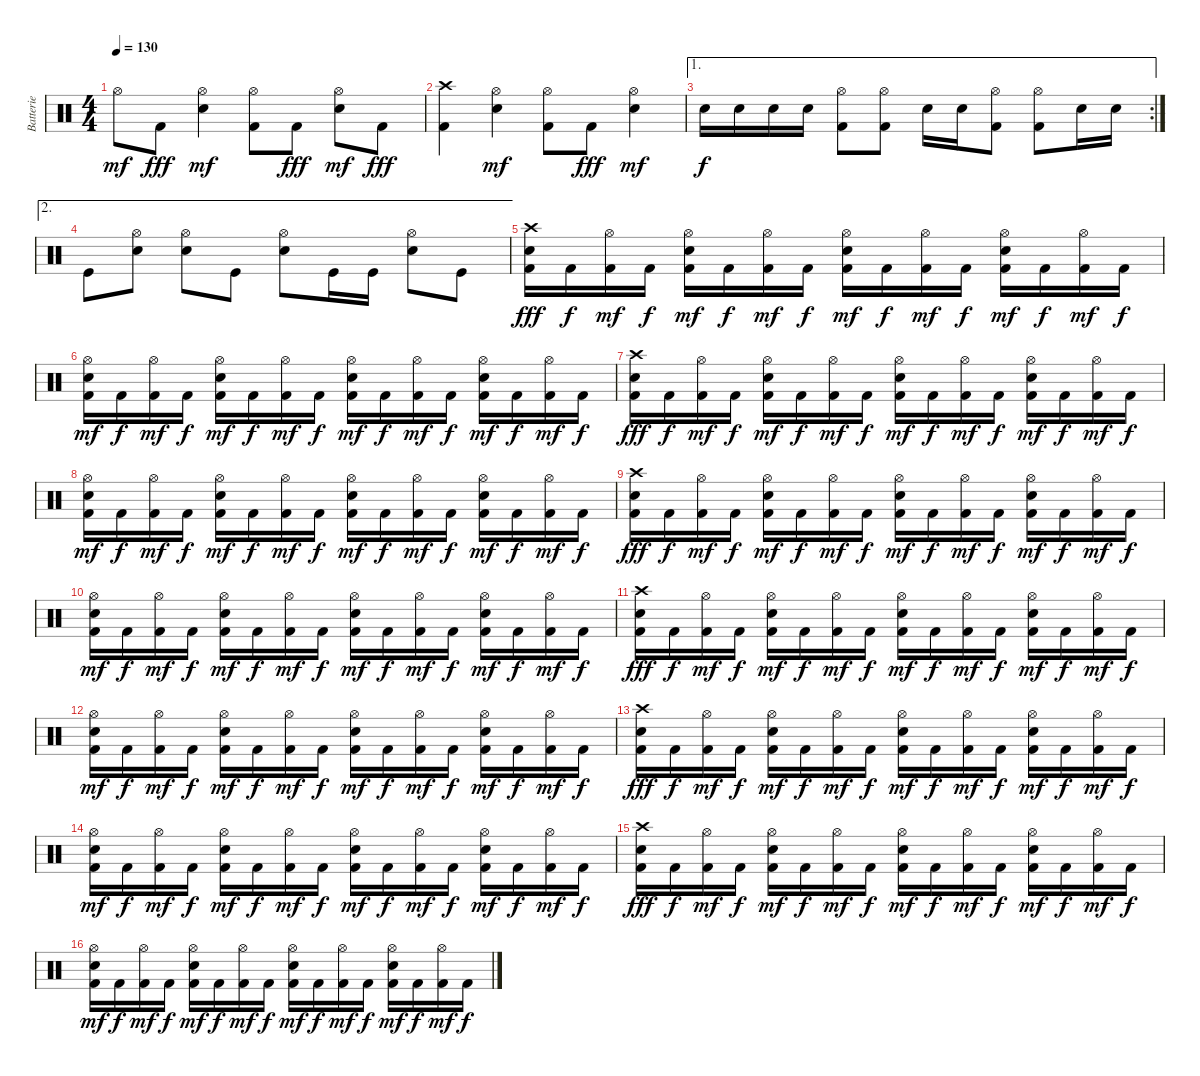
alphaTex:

\track ("Batterie" "Batterie") {instrument percussion}
\staff {score}
\articulation defaults
\ts (4 4)
\tempo 130
\clef neutral
\ks c "Hi-Hat (open)".8{dy mf} "Kick (hit) 2".8{dy fff}
("Snare (hit) 2" "Hi-Hat (open)").4{dy mf} ("Kick (hit) 2" "Hi-Hat (open)").8 "Kick (hit) 2".8{dy fff} ("Snare (hit) 2" "Hi-Hat (open)").8{dy mf} "Kick (hit) 2".8{dy fff} |
("Crash high (hit)" "Kick (hit) 2").4 ("Snare (hit) 2" "Hi-Hat (open)").4{dy mf} ("Kick (hit) 2" "Hi-Hat (open)").8 "Kick (hit) 2".8{dy fff} ("Snare (hit) 2" "Hi-Hat (open)").4{dy mf} |
\ae 1
\rc 2 "Snare (hit) 2".16{dy f} "Snare (hit) 2".16 "Snare (hit) 2".16 "Snare (hit) 2".16
("Kick (hit) 2" "Hi-Hat (open)").8 ("Kick (hit) 2" "Hi-Hat (open)").8 "Snare (hit) 2".16 "Snare (hit) 2".16 ("Kick (hit) 2" "Hi-Hat (open)").8 ("Kick (hit) 2" "Hi-Hat (open)").8 "Snare (hit) 2".16 "Snare (hit) 2".16 |
\ae 2 "Kick (hit)".8
("Snare (hit) 2" "Hi-Hat (open)").8 ("Snare (hit) 2" "Hi-Hat (open)").8 "Kick (hit)".8 ("Snare (hit) 2" "Hi-Hat (open)").8 "Kick (hit)".16 "Kick (hit)".16 ("Snare (hit) 2" "Hi-Hat (open)").8 "Kick (hit)".8 |
("Crash high (hit)" "Snare (hit) 2" "Kick (hit) 2").16{dy fff volume 12} "Kick (hit) 2".16{dy f} ("Kick (hit) 2" "Hi-Hat (open)").16{dy mf} "Kick (hit) 2".16{dy f} ("Snare (hit) 2" "Kick (hit) 2" "Hi-Hat (open)").16{dy mf} "Kick (hit) 2".16{dy f} ("Kick (hit) 2" "Hi-Hat (open)").16{dy mf} "Kick (hit) 2".16{dy f} ("Snare (hit) 2" "Kick (hit) 2" "Hi-Hat (open)").16{dy mf} "Kick (hit) 2".16{dy f} ("Kick (hit) 2" "Hi-Hat (open)").16{dy mf} "Kick (hit) 2".16{dy f} ("Snare (hit) 2" "Kick (hit) 2" "Hi-Hat (open)").16{dy mf} "Kick (hit) 2".16{dy f} ("Kick (hit) 2" "Hi-Hat (open)").16{dy mf} "Kick (hit) 2".16{dy f} |
("Snare (hit) 2" "Kick (hit) 2" "Hi-Hat (open)").16{dy mf volume 11} "Kick (hit) 2".16{dy f} ("Kick (hit) 2" "Hi-Hat (open)").16{dy mf} "Kick (hit) 2".16{dy f} ("Snare (hit) 2" "Kick (hit) 2" "Hi-Hat (open)").16{dy mf} "Kick (hit) 2".16{dy f} ("Kick (hit) 2" "Hi-Hat (open)").16{dy mf} "Kick (hit) 2".16{dy f} ("Snare (hit) 2" "Kick (hit) 2" "Hi-Hat (open)").16{dy mf} "Kick (hit) 2".16{dy f} ("Kick (hit) 2" "Hi-Hat (open)").16{dy mf} "Kick (hit) 2".16{dy f} ("Snare (hit) 2" "Kick (hit) 2" "Hi-Hat (open)").16{dy mf} "Kick (hit) 2".16{dy f} ("Kick (hit) 2" "Hi-Hat (open)").16{dy mf} "Kick (hit) 2".16{dy f} |
("Crash high (hit)" "Snare (hit) 2" "Kick (hit) 2").16{dy fff volume 10} "Kick (hit) 2".16{dy f} ("Kick (hit) 2" "Hi-Hat (open)").16{dy mf} "Kick (hit) 2".16{dy f} ("Snare (hit) 2" "Kick (hit) 2" "Hi-Hat (open)").16{dy mf} "Kick (hit) 2".16{dy f} ("Kick (hit) 2" "Hi-Hat (open)").16{dy mf} "Kick (hit) 2".16{dy f} ("Snare (hit) 2" "Kick (hit) 2" "Hi-Hat (open)").16{dy mf} "Kick (hit) 2".16{dy f} ("Kick (hit) 2" "Hi-Hat (open)").16{dy mf} "Kick (hit) 2".16{dy f} ("Snare (hit) 2" "Kick (hit) 2" "Hi-Hat (open)").16{dy mf} "Kick (hit) 2".16{dy f} ("Kick (hit) 2" "Hi-Hat (open)").16{dy mf} "Kick (hit) 2".16{dy f} |
("Snare (hit) 2" "Kick (hit) 2" "Hi-Hat (open)").16{dy mf volume 9} "Kick (hit) 2".16{dy f} ("Kick (hit) 2" "Hi-Hat (open)").16{dy mf} "Kick (hit) 2".16{dy f} ("Snare (hit) 2" "Kick (hit) 2" "Hi-Hat (open)").16{dy mf} "Kick (hit) 2".16{dy f} ("Kick (hit) 2" "Hi-Hat (open)").16{dy mf} "Kick (hit) 2".16{dy f} ("Snare (hit) 2" "Kick (hit) 2" "Hi-Hat (open)").16{dy mf} "Kick (hit) 2".16{dy f} ("Kick (hit) 2" "Hi-Hat (open)").16{dy mf} "Kick (hit) 2".16{dy f} ("Snare (hit) 2" "Kick (hit) 2" "Hi-Hat (open)").16{dy mf} "Kick (hit) 2".16{dy f} ("Kick (hit) 2" "Hi-Hat (open)").16{dy mf} "Kick (hit) 2".16{dy f} |
("Crash high (hit)" "Snare (hit) 2" "Kick (hit) 2").16{dy fff volume 8} "Kick (hit) 2".16{dy f} ("Kick (hit) 2" "Hi-Hat (open)").16{dy mf} "Kick (hit) 2".16{dy f} ("Snare (hit) 2" "Kick (hit) 2" "Hi-Hat (open)").16{dy mf} "Kick (hit) 2".16{dy f} ("Kick (hit) 2" "Hi-Hat (open)").16{dy mf} "Kick (hit) 2".16{dy f} ("Snare (hit) 2" "Kick (hit) 2" "Hi-Hat (open)").16{dy mf} "Kick (hit) 2".16{dy f} ("Kick (hit) 2" "Hi-Hat (open)").16{dy mf} "Kick (hit) 2".16{dy f} ("Snare (hit) 2" "Kick (hit) 2" "Hi-Hat (open)").16{dy mf} "Kick (hit) 2".16{dy f} ("Kick (hit) 2" "Hi-Hat (open)").16{dy mf} "Kick (hit) 2".16{dy f} |
("Snare (hit) 2" "Kick (hit) 2" "Hi-Hat (open)").16{dy mf volume 7} "Kick (hit) 2".16{dy f} ("Kick (hit) 2" "Hi-Hat (open)").16{dy mf} "Kick (hit) 2".16{dy f} ("Snare (hit) 2" "Kick (hit) 2" "Hi-Hat (open)").16{dy mf} "Kick (hit) 2".16{dy f} ("Kick (hit) 2" "Hi-Hat (open)").16{dy mf} "Kick (hit) 2".16{dy f} ("Snare (hit) 2" "Kick (hit) 2" "Hi-Hat (open)").16{dy mf} "Kick (hit) 2".16{dy f} ("Kick (hit) 2" "Hi-Hat (open)").16{dy mf} "Kick (hit) 2".16{dy f} ("Snare (hit) 2" "Kick (hit) 2" "Hi-Hat (open)").16{dy mf} "Kick (hit) 2".16{dy f} ("Kick (hit) 2" "Hi-Hat (open)").16{dy mf} "Kick (hit) 2".16{dy f} |
("Crash high (hit)" "Snare (hit) 2" "Kick (hit) 2").16{dy fff volume 6} "Kick (hit) 2".16{dy f} ("Kick (hit) 2" "Hi-Hat (open)").16{dy mf} "Kick (hit) 2".16{dy f} ("Snare (hit) 2" "Kick (hit) 2" "Hi-Hat (open)").16{dy mf} "Kick (hit) 2".16{dy f} ("Kick (hit) 2" "Hi-Hat (open)").16{dy mf} "Kick (hit) 2".16{dy f} ("Snare (hit) 2" "Kick (hit) 2" "Hi-Hat (open)").16{dy mf} "Kick (hit) 2".16{dy f} ("Kick (hit) 2" "Hi-Hat (open)").16{dy mf} "Kick (hit) 2".16{dy f} ("Snare (hit) 2" "Kick (hit) 2" "Hi-Hat (open)").16{dy mf} "Kick (hit) 2".16{dy f} ("Kick (hit) 2" "Hi-Hat (open)").16{dy mf} "Kick (hit) 2".16{dy f} |
("Snare (hit) 2" "Kick (hit) 2" "Hi-Hat (open)").16{dy mf volume 5} "Kick (hit) 2".16{dy f} ("Kick (hit) 2" "Hi-Hat (open)").16{dy mf} "Kick (hit) 2".16{dy f} ("Snare (hit) 2" "Kick (hit) 2" "Hi-Hat (open)").16{dy mf} "Kick (hit) 2".16{dy f} ("Kick (hit) 2" "Hi-Hat (open)").16{dy mf} "Kick (hit) 2".16{dy f} ("Snare (hit) 2" "Kick (hit) 2" "Hi-Hat (open)").16{dy mf} "Kick (hit) 2".16{dy f} ("Kick (hit) 2" "Hi-Hat (open)").16{dy mf} "Kick (hit) 2".16{dy f} ("Snare (hit) 2" "Kick (hit) 2" "Hi-Hat (open)").16{dy mf} "Kick (hit) 2".16{dy f} ("Kick (hit) 2" "Hi-Hat (open)").16{dy mf} "Kick (hit) 2".16{dy f} |
("Crash high (hit)" "Snare (hit) 2" "Kick (hit) 2").16{dy fff volume 4} "Kick (hit) 2".16{dy f} ("Kick (hit) 2" "Hi-Hat (open)").16{dy mf} "Kick (hit) 2".16{dy f} ("Snare (hit) 2" "Kick (hit) 2" "Hi-Hat (open)").16{dy mf} "Kick (hit) 2".16{dy f} ("Kick (hit) 2" "Hi-Hat (open)").16{dy mf} "Kick (hit) 2".16{dy f} ("Snare (hit) 2" "Kick (hit) 2" "Hi-Hat (open)").16{dy mf} "Kick (hit) 2".16{dy f} ("Kick (hit) 2" "Hi-Hat (open)").16{dy mf} "Kick (hit) 2".16{dy f} ("Snare (hit) 2" "Kick (hit) 2" "Hi-Hat (open)").16{dy mf} "Kick (hit) 2".16{dy f} ("Kick (hit) 2" "Hi-Hat (open)").16{dy mf} "Kick (hit) 2".16{dy f} |
("Snare (hit) 2" "Kick (hit) 2" "Hi-Hat (open)").16{dy mf volume 3} "Kick (hit) 2".16{dy f} ("Kick (hit) 2" "Hi-Hat (open)").16{dy mf} "Kick (hit) 2".16{dy f} ("Snare (hit) 2" "Kick (hit) 2" "Hi-Hat (open)").16{dy mf} "Kick (hit) 2".16{dy f} ("Kick (hit) 2" "Hi-Hat (open)").16{dy mf} "Kick (hit) 2".16{dy f} ("Snare (hit) 2" "Kick (hit) 2" "Hi-Hat (open)").16{dy mf} "Kick (hit) 2".16{dy f} ("Kick (hit) 2" "Hi-Hat (open)").16{dy mf} "Kick (hit) 2".16{dy f} ("Snare (hit) 2" "Kick (hit) 2" "Hi-Hat (open)").16{dy mf} "Kick (hit) 2".16{dy f} ("Kick (hit) 2" "Hi-Hat (open)").16{dy mf} "Kick (hit) 2".16{dy f} |
("Crash high (hit)" "Snare (hit) 2" "Kick (hit) 2").16{dy fff volume 2} "Kick (hit) 2".16{dy f} ("Kick (hit) 2" "Hi-Hat (open)").16{dy mf} "Kick (hit) 2".16{dy f} ("Snare (hit) 2" "Kick (hit) 2" "Hi-Hat (open)").16{dy mf} "Kick (hit) 2".16{dy f} ("Kick (hit) 2" "Hi-Hat (open)").16{dy mf} "Kick (hit) 2".16{dy f} ("Snare (hit) 2" "Kick (hit) 2" "Hi-Hat (open)").16{dy mf} "Kick (hit) 2".16{dy f} ("Kick (hit) 2" "Hi-Hat (open)").16{dy mf} "Kick (hit) 2".16{dy f} ("Snare (hit) 2" "Kick (hit) 2" "Hi-Hat (open)").16{dy mf} "Kick (hit) 2".16{dy f} ("Kick (hit) 2" "Hi-Hat (open)").16{dy mf} "Kick (hit) 2".16{dy f} |
("Snare (hit) 2" "Kick (hit) 2" "Hi-Hat (open)").16{dy mf volume 1} "Kick (hit) 2".16{dy f} ("Kick (hit) 2" "Hi-Hat (open)").16{dy mf} "Kick (hit) 2".16{dy f} ("Snare (hit) 2" "Kick (hit) 2" "Hi-Hat (open)").16{dy mf} "Kick (hit) 2".16{dy f} ("Kick (hit) 2" "Hi-Hat (open)").16{dy mf} "Kick (hit) 2".16{dy f} ("Snare (hit) 2" "Kick (hit) 2" "Hi-Hat (open)").16{dy mf} "Kick (hit) 2".16{dy f} ("Kick (hit) 2" "Hi-Hat (open)").16{dy mf} "Kick (hit) 2".16{dy f} ("Snare (hit) 2" "Kick (hit) 2" "Hi-Hat (open)").16{dy mf} "Kick (hit) 2".16{dy f} ("Kick (hit) 2" "Hi-Hat (open)").16{dy mf} "Kick (hit) 2".16{dy f}
